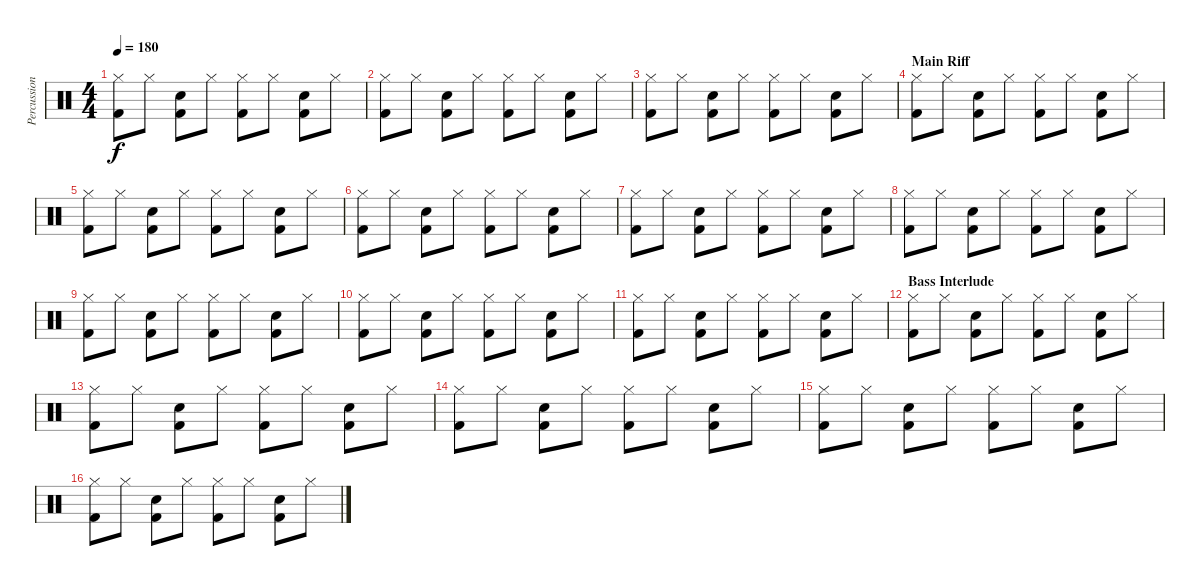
\track ("Percussion" "Percussion") {instrument percussion}
\staff {score}
\articulation defaults
\ts (4 4)
\tempo 180
\clef neutral
\ks c
("Kick (hit) 2" "Hi-Hat (closed)").8{dy f} "Hi-Hat (closed)".8 ("Kick (hit) 2" "Snare (hit) 2").8 "Hi-Hat (closed)".8 ("Kick (hit) 2" "Hi-Hat (closed)").8 "Hi-Hat (closed)".8 ("Kick (hit) 2" "Electric Snare (hit)").8 "Hi-Hat (closed)".8 |
("Kick (hit) 2" "Hi-Hat (closed)").8 "Hi-Hat (closed)".8 ("Kick (hit) 2" "Snare (hit) 2").8 "Hi-Hat (closed)".8 ("Kick (hit) 2" "Hi-Hat (closed)").8 "Hi-Hat (closed)".8 ("Kick (hit) 2" "Electric Snare (hit)").8 "Hi-Hat (closed)".8 |
("Kick (hit) 2" "Hi-Hat (closed)").8 "Hi-Hat (closed)".8 ("Kick (hit) 2" "Snare (hit) 2").8 "Hi-Hat (closed)".8 ("Kick (hit) 2" "Hi-Hat (closed)").8 "Hi-Hat (closed)".8 ("Kick (hit) 2" "Electric Snare (hit)").8 "Hi-Hat (closed)".8 |
\section ("" "Main Riff")
("Kick (hit) 2" "Hi-Hat (closed)").8 "Hi-Hat (closed)".8 ("Kick (hit) 2" "Snare (hit) 2").8 "Hi-Hat (closed)".8 ("Kick (hit) 2" "Hi-Hat (closed)").8 "Hi-Hat (closed)".8 ("Kick (hit) 2" "Electric Snare (hit)").8 "Hi-Hat (closed)".8 |
("Kick (hit) 2" "Hi-Hat (closed)").8 "Hi-Hat (closed)".8 ("Kick (hit) 2" "Snare (hit) 2").8 "Hi-Hat (closed)".8 ("Kick (hit) 2" "Hi-Hat (closed)").8 "Hi-Hat (closed)".8 ("Kick (hit) 2" "Electric Snare (hit)").8 "Hi-Hat (closed)".8 |
("Kick (hit) 2" "Hi-Hat (closed)").8 "Hi-Hat (closed)".8 ("Kick (hit) 2" "Snare (hit) 2").8 "Hi-Hat (closed)".8 ("Kick (hit) 2" "Hi-Hat (closed)").8 "Hi-Hat (closed)".8 ("Kick (hit) 2" "Electric Snare (hit)").8 "Hi-Hat (closed)".8 |
("Kick (hit) 2" "Hi-Hat (closed)").8 "Hi-Hat (closed)".8 ("Kick (hit) 2" "Snare (hit) 2").8 "Hi-Hat (closed)".8 ("Kick (hit) 2" "Hi-Hat (closed)").8 "Hi-Hat (closed)".8 ("Kick (hit) 2" "Electric Snare (hit)").8 "Hi-Hat (closed)".8 |
("Kick (hit) 2" "Hi-Hat (closed)").8 "Hi-Hat (closed)".8 ("Kick (hit) 2" "Snare (hit) 2").8 "Hi-Hat (closed)".8 ("Kick (hit) 2" "Hi-Hat (closed)").8 "Hi-Hat (closed)".8 ("Kick (hit) 2" "Electric Snare (hit)").8 "Hi-Hat (closed)".8 |
("Kick (hit) 2" "Hi-Hat (closed)").8 "Hi-Hat (closed)".8 ("Kick (hit) 2" "Snare (hit) 2").8 "Hi-Hat (closed)".8 ("Kick (hit) 2" "Hi-Hat (closed)").8 "Hi-Hat (closed)".8 ("Kick (hit) 2" "Electric Snare (hit)").8 "Hi-Hat (closed)".8 |
("Kick (hit) 2" "Hi-Hat (closed)").8 "Hi-Hat (closed)".8 ("Kick (hit) 2" "Snare (hit) 2").8 "Hi-Hat (closed)".8 ("Kick (hit) 2" "Hi-Hat (closed)").8 "Hi-Hat (closed)".8 ("Kick (hit) 2" "Electric Snare (hit)").8 "Hi-Hat (closed)".8 |
("Kick (hit) 2" "Hi-Hat (closed)").8 "Hi-Hat (closed)".8 ("Kick (hit) 2" "Snare (hit) 2").8 "Hi-Hat (closed)".8 ("Kick (hit) 2" "Hi-Hat (closed)").8 "Hi-Hat (closed)".8 ("Kick (hit) 2" "Electric Snare (hit)").8 "Hi-Hat (closed)".8 |
\section ("" "Bass Interlude")
("Kick (hit) 2" "Hi-Hat (closed)").8 "Hi-Hat (closed)".8 ("Kick (hit) 2" "Snare (hit) 2").8 "Hi-Hat (closed)".8 ("Kick (hit) 2" "Hi-Hat (closed)").8 "Hi-Hat (closed)".8 ("Kick (hit) 2" "Electric Snare (hit)").8 "Hi-Hat (closed)".8 |
("Kick (hit) 2" "Hi-Hat (closed)").8 "Hi-Hat (closed)".8 ("Kick (hit) 2" "Snare (hit) 2").8 "Hi-Hat (closed)".8 ("Kick (hit) 2" "Hi-Hat (closed)").8 "Hi-Hat (closed)".8 ("Kick (hit) 2" "Electric Snare (hit)").8 "Hi-Hat (closed)".8 |
("Kick (hit) 2" "Hi-Hat (closed)").8 "Hi-Hat (closed)".8 ("Kick (hit) 2" "Snare (hit) 2").8 "Hi-Hat (closed)".8 ("Kick (hit) 2" "Hi-Hat (closed)").8 "Hi-Hat (closed)".8 ("Kick (hit) 2" "Electric Snare (hit)").8 "Hi-Hat (closed)".8 |
("Kick (hit) 2" "Hi-Hat (closed)").8 "Hi-Hat (closed)".8 ("Kick (hit) 2" "Snare (hit) 2").8 "Hi-Hat (closed)".8 ("Kick (hit) 2" "Hi-Hat (closed)").8 "Hi-Hat (closed)".8 ("Kick (hit) 2" "Electric Snare (hit)").8 "Hi-Hat (closed)".8 |
("Kick (hit) 2" "Hi-Hat (closed)").8 "Hi-Hat (closed)".8 ("Kick (hit) 2" "Snare (hit) 2").8 "Hi-Hat (closed)".8 ("Kick (hit) 2" "Hi-Hat (closed)").8 "Hi-Hat (closed)".8 ("Kick (hit) 2" "Electric Snare (hit)").8 "Hi-Hat (closed)".8
